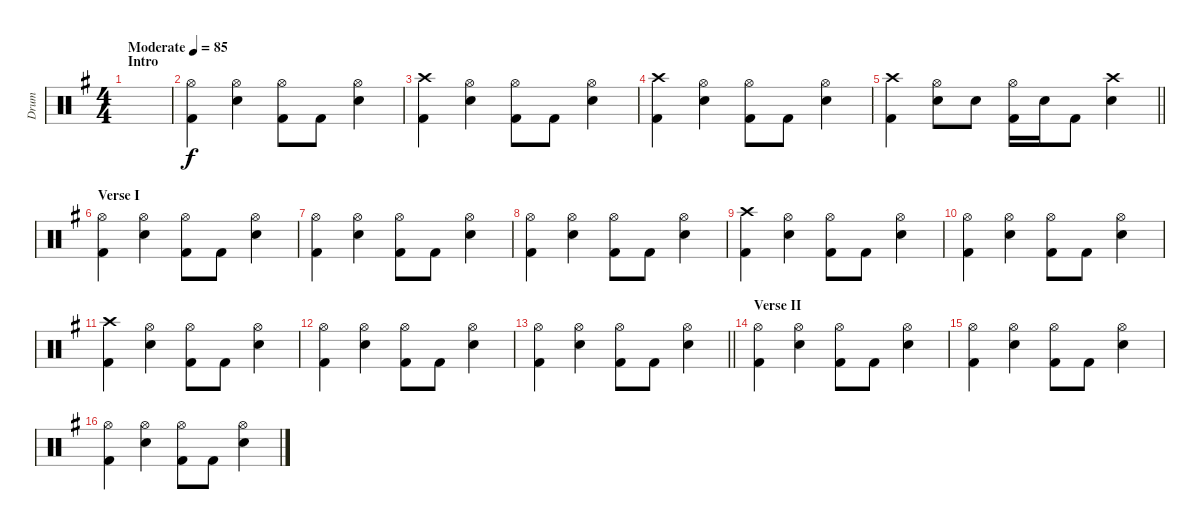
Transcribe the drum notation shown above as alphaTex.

\track ("Drum" "Drum") {instrument percussion}
\staff {score}
\articulation defaults
\ts (4 4)
\section ("" "Intro")
\tempo (85 "Moderate")
\clef neutral
\ks g
|
("Hi-Hat (open)" "Kick (hit) 2").4 ("Electric Snare (hit)" "Hi-Hat (open)").4 ("Kick (hit) 2" "Hi-Hat (open)").8 "Kick (hit) 2".8 ("Electric Snare (hit)" "Hi-Hat (open)").4 |
("Kick (hit) 2" "Crash high (hit)").4 ("Electric Snare (hit)" "Hi-Hat (open)").4 ("Kick (hit) 2" "Hi-Hat (open)").8 "Kick (hit) 2".8 ("Electric Snare (hit)" "Hi-Hat (open)").4 |
("Kick (hit) 2" "Crash high (hit)").4 ("Electric Snare (hit)" "Hi-Hat (open)").4 ("Kick (hit) 2" "Hi-Hat (open)").8 "Kick (hit) 2".8 ("Electric Snare (hit)" "Hi-Hat (open)").4 |
\barLineRight lightlight
("Kick (hit) 2" "Crash high (hit)").4 ("Electric Snare (hit)" "Hi-Hat (open)").8 "Electric Snare (hit)".8 ("Kick (hit) 2" "Hi-Hat (open)").16 "Electric Snare (hit)".16 "Kick (hit) 2".8 ("Electric Snare (hit)" "Crash high (hit)").4 |
\section ("" "Verse I")
("Kick (hit) 2" "Hi-Hat (open)").4 ("Electric Snare (hit)" "Hi-Hat (open)").4 ("Kick (hit) 2" "Hi-Hat (open)").8 "Kick (hit) 2".8 ("Electric Snare (hit)" "Hi-Hat (open)").4 |
("Kick (hit) 2" "Hi-Hat (open)").4 ("Electric Snare (hit)" "Hi-Hat (open)").4 ("Kick (hit) 2" "Hi-Hat (open)").8 "Kick (hit) 2".8 ("Electric Snare (hit)" "Hi-Hat (open)").4 |
("Kick (hit) 2" "Hi-Hat (open)").4 ("Electric Snare (hit)" "Hi-Hat (open)").4 ("Kick (hit) 2" "Hi-Hat (open)").8 "Kick (hit) 2".8 ("Electric Snare (hit)" "Hi-Hat (open)").4 |
("Crash high (hit)" "Kick (hit) 2").4 ("Electric Snare (hit)" "Hi-Hat (open)").4 ("Kick (hit) 2" "Hi-Hat (open)").8 "Kick (hit) 2".8 ("Electric Snare (hit)" "Hi-Hat (open)").4 |
("Kick (hit) 2" "Hi-Hat (open)").4 ("Electric Snare (hit)" "Hi-Hat (open)").4 ("Kick (hit) 2" "Hi-Hat (open)").8 "Kick (hit) 2".8 ("Electric Snare (hit)" "Hi-Hat (open)").4 |
("Crash high (hit)" "Kick (hit) 2").4 ("Electric Snare (hit)" "Hi-Hat (open)").4 ("Kick (hit) 2" "Hi-Hat (open)").8 "Kick (hit) 2".8 ("Electric Snare (hit)" "Hi-Hat (open)").4 |
("Kick (hit) 2" "Hi-Hat (open)").4 ("Electric Snare (hit)" "Hi-Hat (open)").4 ("Kick (hit) 2" "Hi-Hat (open)").8 "Kick (hit) 2".8 ("Electric Snare (hit)" "Hi-Hat (open)").4 |
\barLineRight lightlight
("Kick (hit) 2" "Hi-Hat (open)").4 ("Electric Snare (hit)" "Hi-Hat (open)").4 ("Kick (hit) 2" "Hi-Hat (open)").8 "Kick (hit) 2".8 ("Electric Snare (hit)" "Hi-Hat (open)").4 |
\section ("" "Verse II")
("Kick (hit) 2" "Hi-Hat (open)").4 ("Electric Snare (hit)" "Hi-Hat (open)").4 ("Kick (hit) 2" "Hi-Hat (open)").8 "Kick (hit) 2".8 ("Electric Snare (hit)" "Hi-Hat (open)").4 |
("Kick (hit) 2" "Hi-Hat (open)").4 ("Electric Snare (hit)" "Hi-Hat (open)").4 ("Kick (hit) 2" "Hi-Hat (open)").8 "Kick (hit) 2".8 ("Electric Snare (hit)" "Hi-Hat (open)").4 |
("Kick (hit) 2" "Hi-Hat (open)").4 ("Electric Snare (hit)" "Hi-Hat (open)").4 ("Kick (hit) 2" "Hi-Hat (open)").8 "Kick (hit) 2".8 ("Electric Snare (hit)" "Hi-Hat (open)").4
